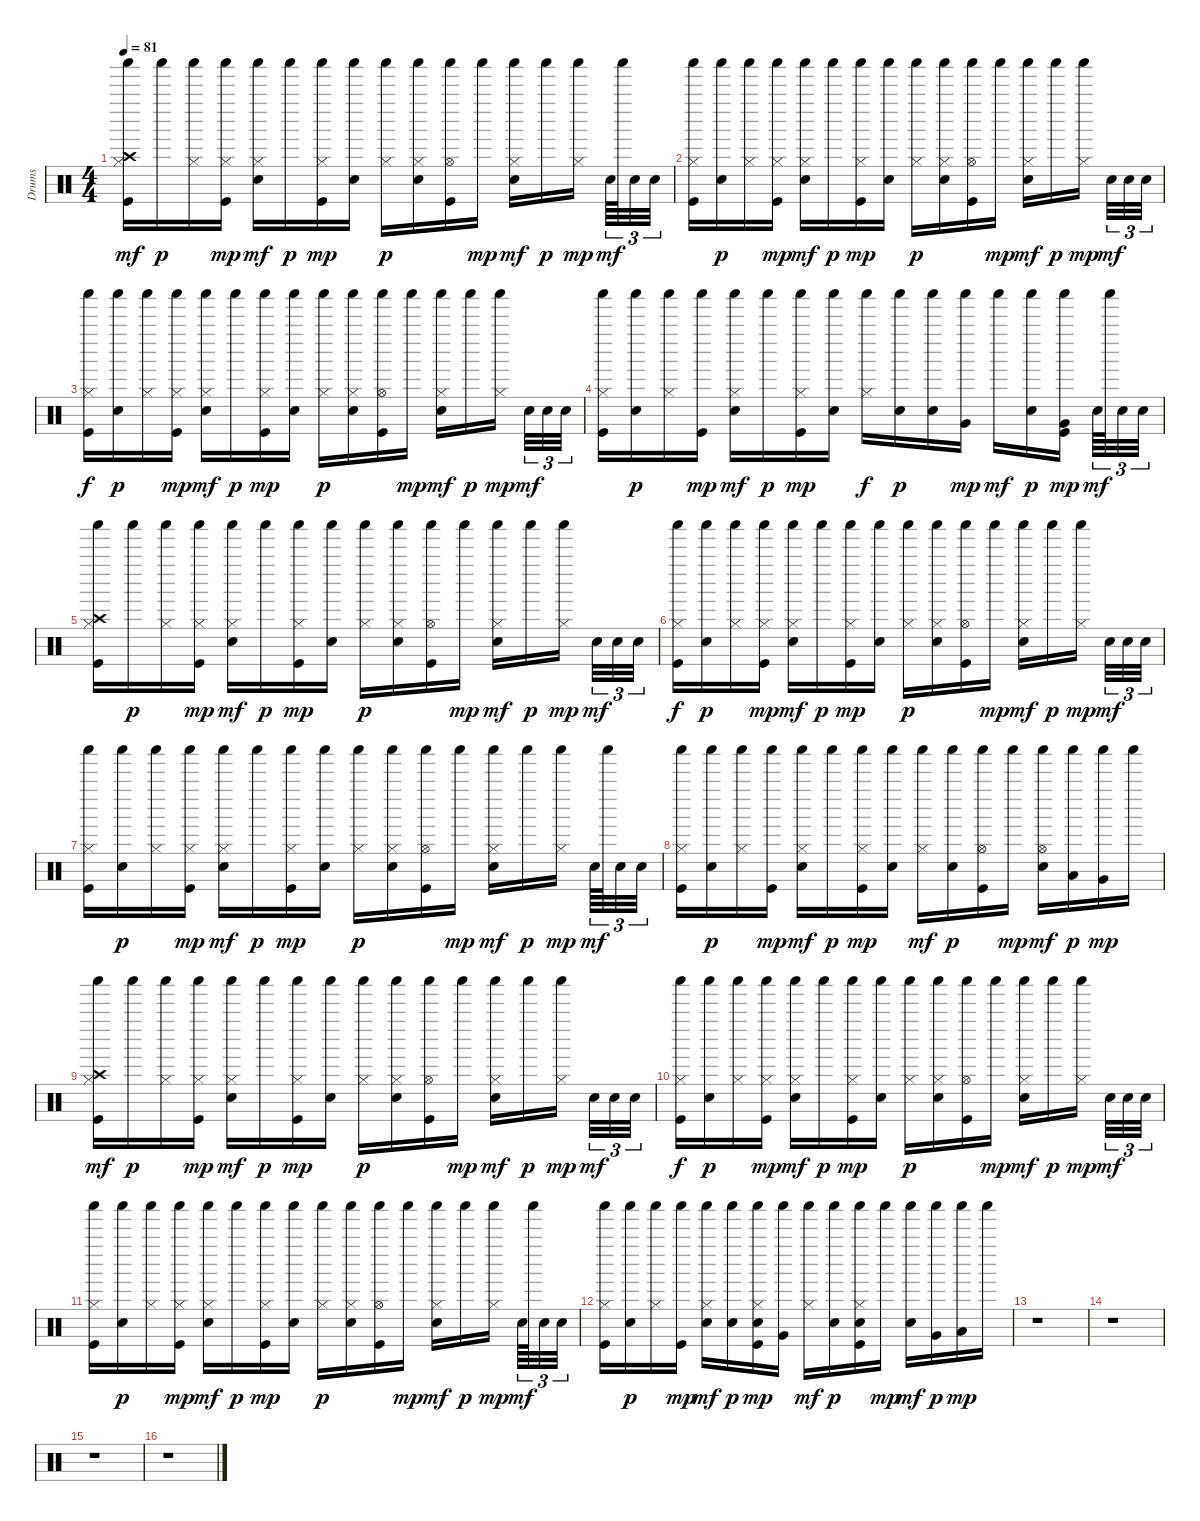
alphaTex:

\track ("Drums" "Drums") {instrument percussion}
\staff {score}
\articulation defaults
\ts (4 4)
\tempo 81
\clef neutral
\ks c
("Kick (hit)" "Crash high (hit)" "Hi-Hat (closed)" "Shaker (hit)").16{dy mf} "Shaker (hit)".16{dy p} ("Hi-Hat (closed)" "Shaker (hit)").16 ("Kick (hit)" "Hi-Hat (closed)" "Shaker (hit)").16{dy mp} ("Snare (hit) 2" "Hi-Hat (closed)" "Shaker (hit)").16{dy mf} "Shaker (hit)".16{dy p} ("Kick (hit)" "Hi-Hat (closed)" "Shaker (hit)").16{dy mp} ("Snare (hit) 2" "Shaker (hit)").16 ("Hi-Hat (closed)" "Shaker (hit)").16{dy p} ("Snare (hit) 2" "Hi-Hat (closed)" "Shaker (hit)").16 ("Kick (hit)" "Hi-Hat (open)" "Shaker (hit)").16 "Shaker (hit)".16{dy mp} ("Snare (hit) 2" "Hi-Hat (closed)" "Shaker (hit)").16{dy mf} "Shaker (hit)".16{dy p} ("Hi-Hat (closed)" "Shaker (hit)").16{dy mp} "Snare (hit) 2".64{tu (3 2) dy mf} "Shaker (hit)".64{tu (3 2)} "Snare (hit) 2".32{tu (3 2)} "Snare (hit) 2".32{tu (3 2)} |
("Kick (hit)" "Hi-Hat (closed)" "Shaker (hit)").16 ("Snare (hit) 2" "Shaker (hit)").16{dy p} ("Hi-Hat (closed)" "Shaker (hit)").16 ("Kick (hit)" "Hi-Hat (closed)" "Shaker (hit)").16{dy mp} ("Snare (hit) 2" "Hi-Hat (closed)" "Shaker (hit)").16{dy mf} "Shaker (hit)".16{dy p} ("Kick (hit)" "Hi-Hat (closed)" "Shaker (hit)").16{dy mp} ("Snare (hit) 2" "Shaker (hit)").16 ("Hi-Hat (closed)" "Shaker (hit)").16{dy p} ("Snare (hit) 2" "Hi-Hat (closed)" "Shaker (hit)").16 ("Kick (hit)" "Hi-Hat (open)" "Shaker (hit)").16 "Shaker (hit)".16{dy mp} ("Snare (hit) 2" "Hi-Hat (closed)" "Shaker (hit)").16{dy mf} "Shaker (hit)".16{dy p} ("Hi-Hat (closed)" "Shaker (hit)").16{dy mp} "Snare (hit) 2".32{tu (3 2) dy mf} "Snare (hit) 2".32{tu (3 2)} "Snare (hit) 2".32{tu (3 2)} |
("Shaker (hit)" "Hi-Hat (closed)" "Kick (hit)").16{dy f} ("Snare (hit) 2" "Shaker (hit)").16{dy p} ("Hi-Hat (closed)" "Shaker (hit)").16 ("Kick (hit)" "Hi-Hat (closed)" "Shaker (hit)").16{dy mp} ("Snare (hit) 2" "Hi-Hat (closed)" "Shaker (hit)").16{dy mf} "Shaker (hit)".16{dy p} ("Kick (hit)" "Hi-Hat (closed)" "Shaker (hit)").16{dy mp} ("Snare (hit) 2" "Shaker (hit)").16 ("Hi-Hat (closed)" "Shaker (hit)").16{dy p} ("Snare (hit) 2" "Hi-Hat (closed)" "Shaker (hit)").16 ("Kick (hit)" "Hi-Hat (open)" "Shaker (hit)").16 "Shaker (hit)".16{dy mp} ("Snare (hit) 2" "Hi-Hat (closed)" "Shaker (hit)").16{dy mf} "Shaker (hit)".16{dy p} ("Hi-Hat (closed)" "Shaker (hit)").16{dy mp} "Snare (hit) 2".32{tu (3 2) dy mf} "Snare (hit) 2".32{tu (3 2)} "Snare (hit) 2".32{tu (3 2)} |
("Kick (hit)" "Hi-Hat (closed)" "Shaker (hit)").16 ("Snare (hit) 2" "Shaker (hit)").16{dy p} ("Hi-Hat (closed)" "Shaker (hit)").16 ("Kick (hit)" "Shaker (hit)").16{dy mp} ("Snare (hit) 2" "Hi-Hat (closed)" "Shaker (hit)").16{dy mf} "Shaker (hit)".16{dy p} ("Kick (hit)" "Hi-Hat (closed)" "Shaker (hit)").16{dy mp} ("Snare (hit) 2" "Shaker (hit)").16 ("Hi-Hat (closed)" "Shaker (hit)").16{dy f} ("Snare (hit) 2" "Shaker (hit)").16{dy p} ("Snare (hit) 2" "Shaker (hit)").16 ("Very Low Tom (hit)" "Shaker (hit)").16{dy mp} "Shaker (hit)".16{dy mf} ("Snare (hit) 2" "Shaker (hit)").16{dy p} ("Kick (hit)" "Very Low Tom (hit)" "Shaker (hit)").16{dy mp} "Snare (hit) 2".64{tu (3 2) dy mf} "Shaker (hit)".64{tu (3 2)} "Snare (hit) 2".32{tu (3 2)} "Snare (hit) 2".32{tu (3 2)} |
("Kick (hit)" "Crash high (hit)" "Hi-Hat (closed)" "Shaker (hit)").16 "Shaker (hit)".16{dy p} ("Hi-Hat (closed)" "Shaker (hit)").16 ("Kick (hit)" "Hi-Hat (closed)" "Shaker (hit)").16{dy mp} ("Snare (hit) 2" "Hi-Hat (closed)" "Shaker (hit)").16{dy mf} "Shaker (hit)".16{dy p} ("Kick (hit)" "Hi-Hat (closed)" "Shaker (hit)").16{dy mp} ("Snare (hit) 2" "Shaker (hit)").16 ("Hi-Hat (closed)" "Shaker (hit)").16{dy p} ("Snare (hit) 2" "Hi-Hat (closed)" "Shaker (hit)").16 ("Kick (hit)" "Hi-Hat (open)" "Shaker (hit)").16 "Shaker (hit)".16{dy mp} ("Snare (hit) 2" "Hi-Hat (closed)" "Shaker (hit)").16{dy mf} "Shaker (hit)".16{dy p} ("Hi-Hat (closed)" "Shaker (hit)").16{dy mp} "Snare (hit) 2".32{tu (3 2) dy mf} "Snare (hit) 2".32{tu (3 2)} "Snare (hit) 2".32{tu (3 2)} |
("Shaker (hit)" "Hi-Hat (closed)" "Kick (hit)").16{dy f} ("Snare (hit) 2" "Shaker (hit)").16{dy p} ("Hi-Hat (closed)" "Shaker (hit)").16 ("Kick (hit)" "Hi-Hat (closed)" "Shaker (hit)").16{dy mp} ("Snare (hit) 2" "Hi-Hat (closed)" "Shaker (hit)").16{dy mf} "Shaker (hit)".16{dy p} ("Kick (hit)" "Hi-Hat (closed)" "Shaker (hit)").16{dy mp} ("Snare (hit) 2" "Shaker (hit)").16 ("Hi-Hat (closed)" "Shaker (hit)").16{dy p} ("Snare (hit) 2" "Hi-Hat (closed)" "Shaker (hit)").16 ("Kick (hit)" "Hi-Hat (open)" "Shaker (hit)").16 "Shaker (hit)".16{dy mp} ("Snare (hit) 2" "Hi-Hat (closed)" "Shaker (hit)").16{dy mf} "Shaker (hit)".16{dy p} ("Hi-Hat (closed)" "Shaker (hit)").16{dy mp} "Snare (hit) 2".32{tu (3 2) dy mf} "Snare (hit) 2".32{tu (3 2)} "Snare (hit) 2".32{tu (3 2)} |
("Kick (hit)" "Hi-Hat (closed)" "Shaker (hit)").16 ("Snare (hit) 2" "Shaker (hit)").16{dy p} ("Hi-Hat (closed)" "Shaker (hit)").16 ("Kick (hit)" "Hi-Hat (closed)" "Shaker (hit)").16{dy mp} ("Snare (hit) 2" "Hi-Hat (closed)" "Shaker (hit)").16{dy mf} "Shaker (hit)".16{dy p} ("Kick (hit)" "Hi-Hat (closed)" "Shaker (hit)").16{dy mp} ("Snare (hit) 2" "Shaker (hit)").16 ("Hi-Hat (closed)" "Shaker (hit)").16{dy p} ("Snare (hit) 2" "Hi-Hat (closed)" "Shaker (hit)").16 ("Kick (hit)" "Hi-Hat (open)" "Shaker (hit)").16 "Shaker (hit)".16{dy mp} ("Snare (hit) 2" "Hi-Hat (closed)" "Shaker (hit)").16{dy mf} "Shaker (hit)".16{dy p} ("Hi-Hat (closed)" "Shaker (hit)").16{dy mp} "Snare (hit) 2".64{tu (3 2) dy mf} "Shaker (hit)".64{tu (3 2)} "Snare (hit) 2".32{tu (3 2)} "Snare (hit) 2".32{tu (3 2)} |
("Kick (hit)" "Hi-Hat (closed)" "Shaker (hit)").16 ("Snare (hit) 2" "Shaker (hit)").16{dy p} ("Hi-Hat (closed)" "Shaker (hit)").16 ("Kick (hit)" "Shaker (hit)").16{dy mp} ("Snare (hit) 2" "Hi-Hat (closed)" "Shaker (hit)").16{dy mf} "Shaker (hit)".16{dy p} ("Kick (hit)" "Hi-Hat (closed)" "Shaker (hit)").16{dy mp} ("Snare (hit) 2" "Shaker (hit)").16 ("Hi-Hat (closed)" "Shaker (hit)").16{dy mf} ("Snare (hit) 2" "Shaker (hit)").16{dy p} ("Kick (hit)" "Hi-Hat (open)" "Shaker (hit)").16 "Shaker (hit)".16{dy mp} ("Snare (hit) 2" "Hi-Hat (open)" "Shaker (hit)").16{dy mf} ("Low Floor Tom (hit)" "Shaker (hit)").16{dy p} ("Very Low Tom (hit)" "Shaker (hit)").16{dy mp} "Shaker (hit)".16 |
("Kick (hit)" "Crash high (hit)" "Hi-Hat (closed)" "Shaker (hit)").16{dy mf} "Shaker (hit)".16{dy p} ("Hi-Hat (closed)" "Shaker (hit)").16 ("Kick (hit)" "Hi-Hat (closed)" "Shaker (hit)").16{dy mp} ("Snare (hit) 2" "Hi-Hat (closed)" "Shaker (hit)").16{dy mf} "Shaker (hit)".16{dy p} ("Kick (hit)" "Hi-Hat (closed)" "Shaker (hit)").16{dy mp} ("Snare (hit) 2" "Shaker (hit)").16 ("Hi-Hat (closed)" "Shaker (hit)").16{dy p} ("Snare (hit) 2" "Hi-Hat (closed)" "Shaker (hit)").16 ("Kick (hit)" "Hi-Hat (open)" "Shaker (hit)").16 "Shaker (hit)".16{dy mp} ("Snare (hit) 2" "Hi-Hat (closed)" "Shaker (hit)").16{dy mf} "Shaker (hit)".16{dy p} ("Hi-Hat (closed)" "Shaker (hit)").16{dy mp} "Snare (hit) 2".32{tu (3 2) dy mf} "Snare (hit) 2".32{tu (3 2)} "Snare (hit) 2".32{tu (3 2)} |
("Hi-Hat (closed)" "Kick (hit)" "Shaker (hit)").16{dy f} ("Snare (hit) 2" "Shaker (hit)").16{dy p} ("Hi-Hat (closed)" "Shaker (hit)").16 ("Kick (hit)" "Hi-Hat (closed)" "Shaker (hit)").16{dy mp} ("Snare (hit) 2" "Hi-Hat (closed)" "Shaker (hit)").16{dy mf} "Shaker (hit)".16{dy p} ("Kick (hit)" "Hi-Hat (closed)" "Shaker (hit)").16{dy mp} ("Snare (hit) 2" "Shaker (hit)").16 ("Hi-Hat (closed)" "Shaker (hit)").16{dy p} ("Snare (hit) 2" "Hi-Hat (closed)" "Shaker (hit)").16 ("Kick (hit)" "Hi-Hat (open)" "Shaker (hit)").16 "Shaker (hit)".16{dy mp} ("Snare (hit) 2" "Hi-Hat (closed)" "Shaker (hit)").16{dy mf} "Shaker (hit)".16{dy p} ("Hi-Hat (closed)" "Shaker (hit)").16{dy mp} "Snare (hit) 2".32{tu (3 2) dy mf} "Snare (hit) 2".32{tu (3 2)} "Snare (hit) 2".32{tu (3 2)} |
("Kick (hit)" "Hi-Hat (closed)" "Shaker (hit)").16 ("Snare (hit) 2" "Shaker (hit)").16{dy p} ("Hi-Hat (closed)" "Shaker (hit)").16 ("Kick (hit)" "Hi-Hat (closed)" "Shaker (hit)").16{dy mp} ("Snare (hit) 2" "Hi-Hat (closed)" "Shaker (hit)").16{dy mf} "Shaker (hit)".16{dy p} ("Kick (hit)" "Hi-Hat (closed)" "Shaker (hit)").16{dy mp} ("Snare (hit) 2" "Shaker (hit)").16 ("Hi-Hat (closed)" "Shaker (hit)").16{dy p} ("Snare (hit) 2" "Hi-Hat (closed)" "Shaker (hit)").16 ("Kick (hit)" "Hi-Hat (open)" "Shaker (hit)").16 "Shaker (hit)".16{dy mp} ("Snare (hit) 2" "Hi-Hat (closed)" "Shaker (hit)").16{dy mf} "Shaker (hit)".16{dy p} ("Hi-Hat (closed)" "Shaker (hit)").16{dy mp} "Snare (hit) 2".64{tu (3 2) dy mf} "Shaker (hit)".64{tu (3 2)} "Snare (hit) 2".32{tu (3 2)} "Snare (hit) 2".32{tu (3 2)} |
("Kick (hit)" "Hi-Hat (closed)" "Shaker (hit)").16 ("Snare (hit) 2" "Shaker (hit)").16{dy p} ("Hi-Hat (closed)" "Shaker (hit)").16 ("Kick (hit)" "Shaker (hit)").16{dy mp} ("Snare (hit) 2" "Hi-Hat (closed)" "Shaker (hit)").16{dy mf} ("Snare (hit) 2" "Shaker (hit)").16{dy p} ("Kick (hit)" "Snare (hit) 2" "Hi-Hat (closed)" "Shaker (hit)").16{dy mp} ("Very Low Tom (hit)" "Shaker (hit)").16 ("Hi-Hat (closed)" "Shaker (hit)").16{dy mf} ("Snare (hit) 2" "Shaker (hit)").16{dy p} ("Kick (hit)" "Snare (hit) 2" "Hi-Hat (closed)" "Shaker (hit)").16 "Shaker (hit)".16{dy mp} ("Snare (hit) 2" "Shaker (hit)").16{dy mf} ("Very Low Tom (hit)" "Shaker (hit)").16{dy p} ("Low Floor Tom (hit)" "Shaker (hit)").16{dy mp} "Shaker (hit)".16 |
r.1 |
r.1 |
r.1 |
r.1
